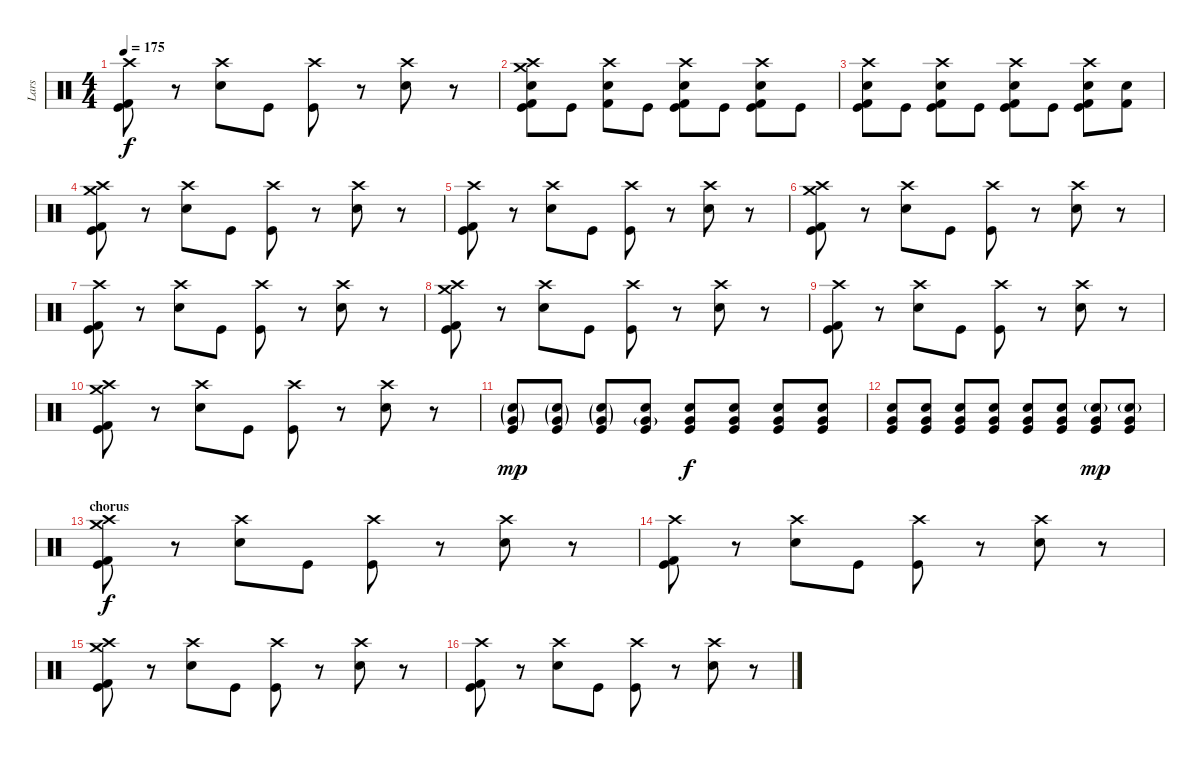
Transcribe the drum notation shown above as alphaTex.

\track ("Lars" "Lars") {instrument percussion}
\staff {score}
\articulation defaults
\ts (4 4)
\tempo 175
\clef neutral
\ks c
("Crash high (hit)" "Kick (hit) 2" "Kick (hit)").8{dy f} r.8 ("Crash high (hit)" "Snare (hit) 2").8 "Kick (hit)".8 ("Crash high (hit)" "Kick (hit)").8 r.8 ("Crash high (hit)" "Snare (hit) 2").8 r.8 |
("Crash high (hit)" "Snare (hit) 2" "Crash medium (hit)" "Kick (hit) 2" "Kick (hit)").8 "Kick (hit)".8 ("Crash high (hit)" "Snare (hit) 2" "Kick (hit) 2").8 "Kick (hit)".8 ("Crash high (hit)" "Snare (hit) 2" "Kick (hit) 2" "Kick (hit)").8 "Kick (hit)".8 ("Crash high (hit)" "Snare (hit) 2" "Kick (hit) 2" "Kick (hit)").8 "Kick (hit)".8 |
("Crash high (hit)" "Snare (hit) 2" "Kick (hit) 2" "Kick (hit)").8 "Kick (hit)".8 ("Crash high (hit)" "Snare (hit) 2" "Kick (hit) 2" "Kick (hit)").8 "Kick (hit)".8 ("Crash high (hit)" "Snare (hit) 2" "Kick (hit) 2" "Kick (hit)").8 "Kick (hit)".8 ("Crash high (hit)" "Snare (hit) 2" "Kick (hit) 2" "Kick (hit)").8 ("Snare (hit) 2" "Kick (hit) 2").8 |
("Crash high (hit)" "Crash medium (hit)" "Kick (hit) 2" "Kick (hit)").8 r.8 ("Crash high (hit)" "Snare (hit) 2").8 "Kick (hit)".8 ("Crash high (hit)" "Kick (hit)").8 r.8 ("Crash high (hit)" "Snare (hit) 2").8 r.8 |
("Crash high (hit)" "Kick (hit) 2" "Kick (hit)").8 r.8 ("Crash high (hit)" "Snare (hit) 2").8 "Kick (hit)".8 ("Crash high (hit)" "Kick (hit)").8 r.8 ("Crash high (hit)" "Snare (hit) 2").8 r.8 |
("Crash high (hit)" "Crash medium (hit)" "Kick (hit) 2" "Kick (hit)").8 r.8 ("Crash high (hit)" "Snare (hit) 2").8 "Kick (hit)".8 ("Crash high (hit)" "Kick (hit)").8 r.8 ("Crash high (hit)" "Snare (hit) 2").8 r.8 |
("Crash high (hit)" "Kick (hit) 2" "Kick (hit)").8 r.8 ("Crash high (hit)" "Snare (hit) 2").8 "Kick (hit)".8 ("Crash high (hit)" "Kick (hit)").8 r.8 ("Crash high (hit)" "Snare (hit) 2").8 r.8 |
("Crash high (hit)" "Crash medium (hit)" "Kick (hit) 2" "Kick (hit)").8 r.8 ("Crash high (hit)" "Snare (hit) 2").8 "Kick (hit)".8 ("Crash high (hit)" "Kick (hit)").8 r.8 ("Crash high (hit)" "Snare (hit) 2").8 r.8 |
("Crash high (hit)" "Kick (hit) 2" "Kick (hit)").8 r.8 ("Crash high (hit)" "Snare (hit) 2").8 "Kick (hit)".8 ("Crash high (hit)" "Kick (hit)").8 r.8 ("Crash high (hit)" "Snare (hit) 2").8 r.8 |
("Crash high (hit)" "Crash medium (hit)" "Kick (hit) 2" "Kick (hit)").8 r.8 ("Crash high (hit)" "Snare (hit) 2").8 "Kick (hit)".8 ("Crash high (hit)" "Kick (hit)").8 r.8 ("Crash high (hit)" "Snare (hit) 2").8 r.8 |
("Snare (hit) 2"{g} "Very Low Tom (hit)"{g} "Kick (hit)").8{dy mp} ("Snare (hit) 2"{g} "Very Low Tom (hit)"{g} "Kick (hit)").8 ("Snare (hit) 2"{g} "Very Low Tom (hit)"{g} "Kick (hit)").8 ("Snare (hit) 2" "Very Low Tom (hit)"{g} "Kick (hit)").8 ("Snare (hit) 2" "Very Low Tom (hit)" "Kick (hit)").8{dy f} ("Snare (hit) 2" "Very Low Tom (hit)" "Kick (hit)").8 ("Snare (hit) 2" "Very Low Tom (hit)" "Kick (hit)").8 ("Snare (hit) 2" "Very Low Tom (hit)" "Kick (hit)").8 |
("Snare (hit) 2" "Very Low Tom (hit)" "Kick (hit)").8 ("Snare (hit) 2" "Very Low Tom (hit)" "Kick (hit)").8 ("Snare (hit) 2" "Very Low Tom (hit)" "Kick (hit)").8 ("Snare (hit) 2" "Very Low Tom (hit)" "Kick (hit)").8 ("Snare (hit) 2" "Very Low Tom (hit)" "Kick (hit)").8 ("Snare (hit) 2" "Very Low Tom (hit)" "Kick (hit)").8 ("Snare (hit) 2"{g} "Very Low Tom (hit)" "Kick (hit)").8{dy mp} ("Snare (hit) 2"{g} "Very Low Tom (hit)" "Kick (hit)").8 |
\section ("" "chorus")
("Crash high (hit)" "Crash medium (hit)" "Kick (hit) 2" "Kick (hit)").8{dy f} r.8 ("Crash high (hit)" "Snare (hit) 2").8 "Kick (hit)".8 ("Crash high (hit)" "Kick (hit)").8 r.8 ("Crash high (hit)" "Snare (hit) 2").8 r.8 |
("Crash high (hit)" "Kick (hit) 2" "Kick (hit)").8 r.8 ("Crash high (hit)" "Snare (hit) 2").8 "Kick (hit)".8 ("Crash high (hit)" "Kick (hit)").8 r.8 ("Crash high (hit)" "Snare (hit) 2").8 r.8 |
("Crash high (hit)" "Crash medium (hit)" "Kick (hit) 2" "Kick (hit)").8 r.8 ("Crash high (hit)" "Snare (hit) 2").8 "Kick (hit)".8 ("Crash high (hit)" "Kick (hit)").8 r.8 ("Crash high (hit)" "Snare (hit) 2").8 r.8 |
("Crash high (hit)" "Kick (hit) 2" "Kick (hit)").8 r.8 ("Crash high (hit)" "Snare (hit) 2").8 "Kick (hit)".8 ("Crash high (hit)" "Kick (hit)").8 r.8 ("Crash high (hit)" "Snare (hit) 2").8 r.8
